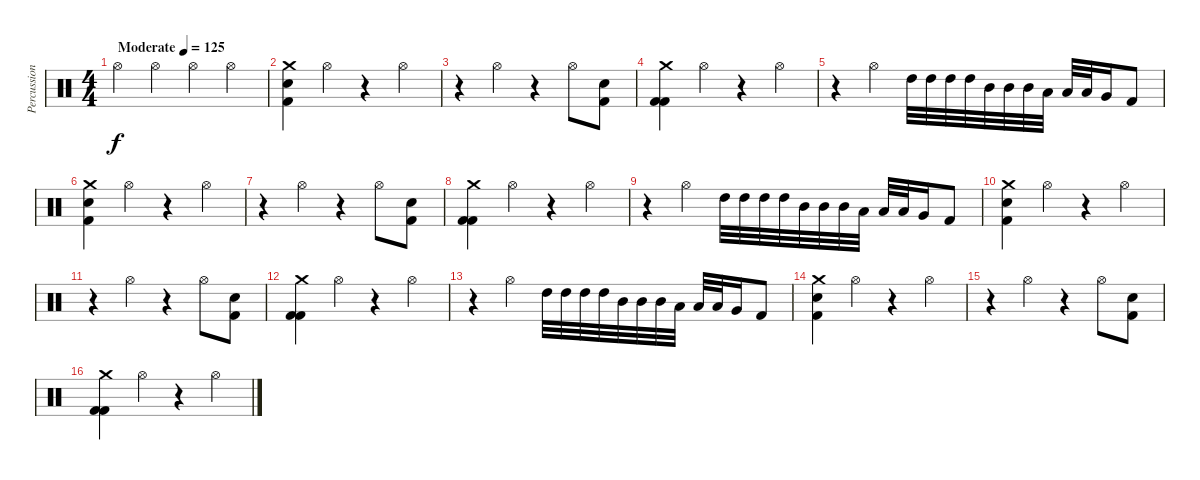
\track ("Percussion" "Percussion") {instrument percussion}
\staff {score}
\articulation defaults
\ts (4 4)
\tempo (125 "Moderate")
\clef neutral
\ks c "Hi-Hat (open)".4{dy f} "Hi-Hat (open)".4 "Hi-Hat (open)".4 "Hi-Hat (open)".4
|
("Crash medium (hit)" "Snare (hit) 2" "Kick (hit) 2").4 "Hi-Hat (open)".4 r.4 "Hi-Hat (open)".4 |
r.4 "Hi-Hat (open)".4 r.4 "Hi-Hat (open)".8 ("Snare (hit) 2" "Kick (hit) 2").8 |
("Crash medium (hit)" "Kick (hit) 2" "Kick (hit) 2").4 "Hi-Hat (open)".4 r.4 "Hi-Hat (open)".4 |
r.4 "Hi-Hat (open)".4 "High Tom (hit)".32 "High Tom (hit)".32 "High Tom (hit)".32 "High Tom (hit)".32 "Mid Tom (hit)".32 "Mid Tom (hit)".32 "Mid Tom (hit)".32 "Low Tom (hit)".32 "Low Tom (hit)".32 "Low Tom (hit)".32 "Very Low Tom (hit)".16 "Kick (hit) 2".8 |
("Crash medium (hit)" "Snare (hit) 2" "Kick (hit) 2").4 "Hi-Hat (open)".4 r.4 "Hi-Hat (open)".4 |
r.4 "Hi-Hat (open)".4 r.4 "Hi-Hat (open)".8 ("Snare (hit) 2" "Kick (hit) 2").8 |
("Crash medium (hit)" "Kick (hit) 2" "Kick (hit) 2").4 "Hi-Hat (open)".4 r.4 "Hi-Hat (open)".4 |
r.4 "Hi-Hat (open)".4 "High Tom (hit)".32 "High Tom (hit)".32 "High Tom (hit)".32 "High Tom (hit)".32 "Mid Tom (hit)".32 "Mid Tom (hit)".32 "Mid Tom (hit)".32 "Low Tom (hit)".32 "Low Tom (hit)".32 "Low Tom (hit)".32 "Very Low Tom (hit)".16 "Kick (hit) 2".8 |
("Crash medium (hit)" "Snare (hit) 2" "Kick (hit) 2").4 "Hi-Hat (open)".4 r.4 "Hi-Hat (open)".4 |
r.4 "Hi-Hat (open)".4 r.4 "Hi-Hat (open)".8 ("Snare (hit) 2" "Kick (hit) 2").8 |
("Crash medium (hit)" "Kick (hit) 2" "Kick (hit) 2").4 "Hi-Hat (open)".4 r.4 "Hi-Hat (open)".4 |
r.4 "Hi-Hat (open)".4 "High Tom (hit)".32 "High Tom (hit)".32 "High Tom (hit)".32 "High Tom (hit)".32 "Mid Tom (hit)".32 "Mid Tom (hit)".32 "Mid Tom (hit)".32 "Low Tom (hit)".32 "Low Tom (hit)".32 "Low Tom (hit)".32 "Very Low Tom (hit)".16 "Kick (hit) 2".8 |
("Crash medium (hit)" "Snare (hit) 2" "Kick (hit) 2").4 "Hi-Hat (open)".4 r.4 "Hi-Hat (open)".4 |
r.4 "Hi-Hat (open)".4 r.4 "Hi-Hat (open)".8 ("Snare (hit) 2" "Kick (hit) 2").8 |
("Crash medium (hit)" "Kick (hit) 2" "Kick (hit) 2").4 "Hi-Hat (open)".4 r.4 "Hi-Hat (open)".4
